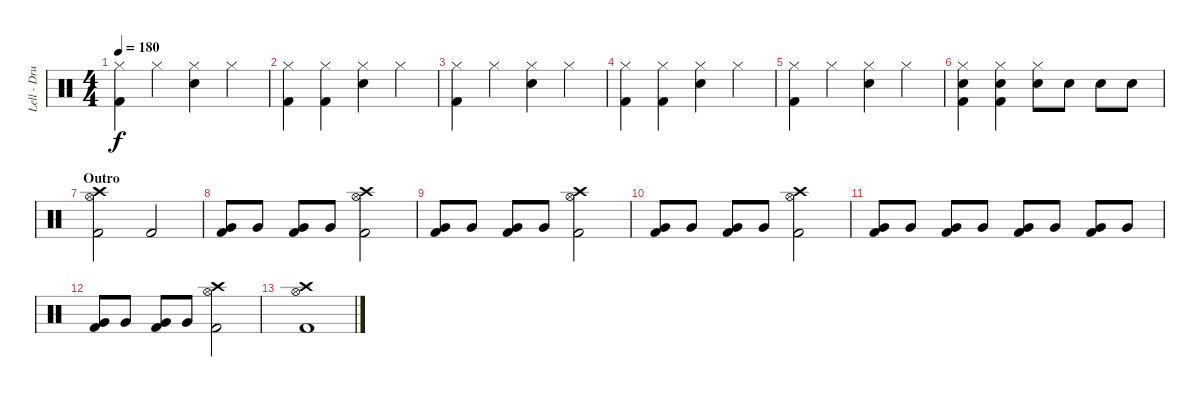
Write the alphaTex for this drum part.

\track ("Lell - Drums" "Lell - Dru") {instrument percussion}
\staff {score}
\articulation defaults
\ts (4 4)
\tempo 180
\clef neutral
\ks c
("Hi-Hat (closed)" "Kick (hit) 2").4{dy f} "Hi-Hat (closed)".4 ("Hi-Hat (closed)" "Snare (hit) 2").4 "Hi-Hat (closed)".4 |
("Hi-Hat (closed)" "Kick (hit) 2").4 ("Hi-Hat (closed)" "Kick (hit) 2").4 ("Hi-Hat (closed)" "Snare (hit) 2").4 "Hi-Hat (closed)".4 |
("Hi-Hat (closed)" "Kick (hit) 2").4 "Hi-Hat (closed)".4 ("Hi-Hat (closed)" "Snare (hit) 2").4 "Hi-Hat (closed)".4 |
("Hi-Hat (closed)" "Kick (hit) 2").4 ("Hi-Hat (closed)" "Kick (hit) 2").4 ("Hi-Hat (closed)" "Snare (hit) 2").4 "Hi-Hat (closed)".4 |
("Hi-Hat (closed)" "Kick (hit) 2").4 "Hi-Hat (closed)".4 ("Hi-Hat (closed)" "Snare (hit) 2").4 "Hi-Hat (closed)".4 |
("Hi-Hat (closed)" "Snare (hit) 2" "Kick (hit) 2").4 ("Hi-Hat (closed)" "Snare (hit) 2" "Kick (hit) 2").4 ("Hi-Hat (closed)" "Snare (hit) 2").8 "Snare (hit) 2".8 "Snare (hit) 2".8 "Snare (hit) 2".8 |
\section ("" "Outro")
("Crash high (hit)" "Hi-Hat (open)" "Kick (hit) 2").2 "Kick (hit) 2".2 |
("Very Low Tom (hit)" "Kick (hit) 2").8 "Very Low Tom (hit)".8 ("Very Low Tom (hit)" "Kick (hit) 2").8 "Very Low Tom (hit)".8 ("Crash high (hit)" "Hi-Hat (open)" "Kick (hit) 2").2 |
("Very Low Tom (hit)" "Kick (hit) 2").8 "Very Low Tom (hit)".8 ("Very Low Tom (hit)" "Kick (hit) 2").8 "Very Low Tom (hit)".8 ("Crash high (hit)" "Hi-Hat (open)" "Kick (hit) 2").2 |
("Very Low Tom (hit)" "Kick (hit) 2").8 "Very Low Tom (hit)".8 ("Very Low Tom (hit)" "Kick (hit) 2").8 "Very Low Tom (hit)".8 ("Crash high (hit)" "Hi-Hat (open)" "Kick (hit) 2").2 |
("Very Low Tom (hit)" "Kick (hit) 2").8 "Very Low Tom (hit)".8 ("Very Low Tom (hit)" "Kick (hit) 2").8 "Very Low Tom (hit)".8 ("Very Low Tom (hit)" "Kick (hit) 2").8 "Very Low Tom (hit)".8 ("Very Low Tom (hit)" "Kick (hit) 2").8 "Very Low Tom (hit)".8 |
("Very Low Tom (hit)" "Kick (hit) 2").8 "Very Low Tom (hit)".8 ("Very Low Tom (hit)" "Kick (hit) 2").8 "Very Low Tom (hit)".8 ("Crash high (hit)" "Hi-Hat (open)" "Kick (hit) 2").2 |
("Crash high (hit)" "Hi-Hat (open)" "Kick (hit) 2").1{bd 480}
